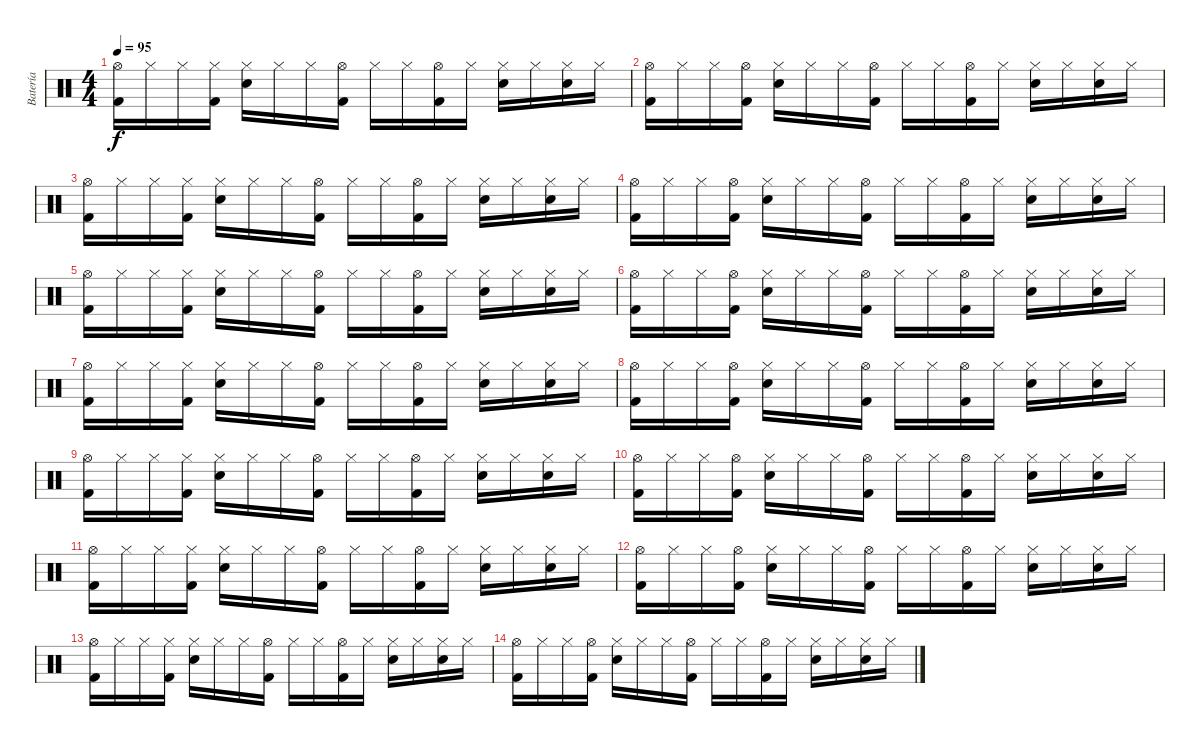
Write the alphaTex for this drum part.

\track ("Batería" "Batería") {instrument percussion}
\staff {score}
\articulation defaults
\ts (4 4)
\tempo 95
\clef neutral
\ks c
("Hi-Hat (open)" "Kick (hit) 2").16{dy f} "Hi-Hat (closed)".16 "Hi-Hat (closed)".16 ("Hi-Hat (closed)" "Kick (hit) 2").16 ("Hi-Hat (closed)" "Electric Snare (hit)").16 "Hi-Hat (closed)".16 "Hi-Hat (closed)".16 ("Hi-Hat (open)" "Kick (hit) 2").16 "Hi-Hat (closed)".16 "Hi-Hat (closed)".16 ("Hi-Hat (open)" "Kick (hit) 2").16 "Hi-Hat (closed)".16 ("Hi-Hat (closed)" "Electric Snare (hit)").16 "Hi-Hat (closed)".16 ("Hi-Hat (closed)" "Electric Snare (hit)").16 "Hi-Hat (closed)".16 |
("Hi-Hat (open)" "Kick (hit) 2").16 "Hi-Hat (closed)".16 "Hi-Hat (closed)".16 ("Hi-Hat (open)" "Kick (hit) 2").16 ("Hi-Hat (closed)" "Electric Snare (hit)").16 "Hi-Hat (closed)".16 "Hi-Hat (closed)".16 ("Hi-Hat (open)" "Kick (hit) 2").16 "Hi-Hat (closed)".16 "Hi-Hat (closed)".16 ("Hi-Hat (open)" "Kick (hit) 2").16 "Hi-Hat (closed)".16 ("Hi-Hat (closed)" "Electric Snare (hit)").16 "Hi-Hat (closed)".16 ("Hi-Hat (closed)" "Electric Snare (hit)").16 "Hi-Hat (closed)".16 |
("Hi-Hat (open)" "Kick (hit) 2").16 "Hi-Hat (closed)".16 "Hi-Hat (closed)".16 ("Hi-Hat (closed)" "Kick (hit) 2").16 ("Hi-Hat (closed)" "Electric Snare (hit)").16 "Hi-Hat (closed)".16 "Hi-Hat (closed)".16 ("Hi-Hat (open)" "Kick (hit) 2").16 "Hi-Hat (closed)".16 "Hi-Hat (closed)".16 ("Hi-Hat (open)" "Kick (hit) 2").16 "Hi-Hat (closed)".16 ("Hi-Hat (closed)" "Electric Snare (hit)").16 "Hi-Hat (closed)".16 ("Hi-Hat (closed)" "Electric Snare (hit)").16 "Hi-Hat (closed)".16 |
("Hi-Hat (open)" "Kick (hit) 2").16 "Hi-Hat (closed)".16 "Hi-Hat (closed)".16 ("Hi-Hat (open)" "Kick (hit) 2").16 ("Hi-Hat (closed)" "Electric Snare (hit)").16 "Hi-Hat (closed)".16 "Hi-Hat (closed)".16 ("Hi-Hat (open)" "Kick (hit) 2").16 "Hi-Hat (closed)".16 "Hi-Hat (closed)".16 ("Hi-Hat (open)" "Kick (hit) 2").16 "Hi-Hat (closed)".16 ("Hi-Hat (closed)" "Electric Snare (hit)").16 "Hi-Hat (closed)".16 ("Hi-Hat (closed)" "Electric Snare (hit)").16 "Hi-Hat (closed)".16 |
("Hi-Hat (open)" "Kick (hit) 2").16 "Hi-Hat (closed)".16 "Hi-Hat (closed)".16 ("Hi-Hat (closed)" "Kick (hit) 2").16 ("Hi-Hat (closed)" "Electric Snare (hit)").16 "Hi-Hat (closed)".16 "Hi-Hat (closed)".16 ("Hi-Hat (open)" "Kick (hit) 2").16 "Hi-Hat (closed)".16 "Hi-Hat (closed)".16 ("Hi-Hat (open)" "Kick (hit) 2").16 "Hi-Hat (closed)".16 ("Hi-Hat (closed)" "Electric Snare (hit)").16 "Hi-Hat (closed)".16 ("Hi-Hat (closed)" "Electric Snare (hit)").16 "Hi-Hat (closed)".16 |
("Hi-Hat (open)" "Kick (hit) 2").16 "Hi-Hat (closed)".16 "Hi-Hat (closed)".16 ("Hi-Hat (open)" "Kick (hit) 2").16 ("Hi-Hat (closed)" "Electric Snare (hit)").16 "Hi-Hat (closed)".16 "Hi-Hat (closed)".16 ("Hi-Hat (open)" "Kick (hit) 2").16 "Hi-Hat (closed)".16 "Hi-Hat (closed)".16 ("Hi-Hat (open)" "Kick (hit) 2").16 "Hi-Hat (closed)".16 ("Hi-Hat (closed)" "Electric Snare (hit)").16 "Hi-Hat (closed)".16 ("Hi-Hat (closed)" "Electric Snare (hit)").16 "Hi-Hat (closed)".16 |
("Hi-Hat (open)" "Kick (hit) 2").16 "Hi-Hat (closed)".16 "Hi-Hat (closed)".16 ("Hi-Hat (closed)" "Kick (hit) 2").16 ("Hi-Hat (closed)" "Electric Snare (hit)").16 "Hi-Hat (closed)".16 "Hi-Hat (closed)".16 ("Hi-Hat (open)" "Kick (hit) 2").16 "Hi-Hat (closed)".16 "Hi-Hat (closed)".16 ("Hi-Hat (open)" "Kick (hit) 2").16 "Hi-Hat (closed)".16 ("Hi-Hat (closed)" "Electric Snare (hit)").16 "Hi-Hat (closed)".16 ("Hi-Hat (closed)" "Electric Snare (hit)").16 "Hi-Hat (closed)".16 |
("Hi-Hat (open)" "Kick (hit) 2").16 "Hi-Hat (closed)".16 "Hi-Hat (closed)".16 ("Hi-Hat (open)" "Kick (hit) 2").16 ("Hi-Hat (closed)" "Electric Snare (hit)").16 "Hi-Hat (closed)".16 "Hi-Hat (closed)".16 ("Hi-Hat (open)" "Kick (hit) 2").16 "Hi-Hat (closed)".16 "Hi-Hat (closed)".16 ("Hi-Hat (open)" "Kick (hit) 2").16 "Hi-Hat (closed)".16 ("Hi-Hat (closed)" "Electric Snare (hit)").16 "Hi-Hat (closed)".16 ("Hi-Hat (closed)" "Electric Snare (hit)").16 "Hi-Hat (closed)".16 |
("Hi-Hat (open)" "Kick (hit) 2").16 "Hi-Hat (closed)".16 "Hi-Hat (closed)".16 ("Hi-Hat (closed)" "Kick (hit) 2").16 ("Hi-Hat (closed)" "Electric Snare (hit)").16 "Hi-Hat (closed)".16 "Hi-Hat (closed)".16 ("Hi-Hat (open)" "Kick (hit) 2").16 "Hi-Hat (closed)".16 "Hi-Hat (closed)".16 ("Hi-Hat (open)" "Kick (hit) 2").16 "Hi-Hat (closed)".16 ("Hi-Hat (closed)" "Electric Snare (hit)").16 "Hi-Hat (closed)".16 ("Hi-Hat (closed)" "Electric Snare (hit)").16 "Hi-Hat (closed)".16 |
("Hi-Hat (open)" "Kick (hit) 2").16 "Hi-Hat (closed)".16 "Hi-Hat (closed)".16 ("Hi-Hat (open)" "Kick (hit) 2").16 ("Hi-Hat (closed)" "Electric Snare (hit)").16 "Hi-Hat (closed)".16 "Hi-Hat (closed)".16 ("Hi-Hat (open)" "Kick (hit) 2").16 "Hi-Hat (closed)".16 "Hi-Hat (closed)".16 ("Hi-Hat (open)" "Kick (hit) 2").16 "Hi-Hat (closed)".16 ("Hi-Hat (closed)" "Electric Snare (hit)").16 "Hi-Hat (closed)".16 ("Hi-Hat (closed)" "Electric Snare (hit)").16 "Hi-Hat (closed)".16 |
("Hi-Hat (open)" "Kick (hit) 2").16 "Hi-Hat (closed)".16 "Hi-Hat (closed)".16 ("Hi-Hat (closed)" "Kick (hit) 2").16 ("Hi-Hat (closed)" "Electric Snare (hit)").16 "Hi-Hat (closed)".16 "Hi-Hat (closed)".16 ("Hi-Hat (open)" "Kick (hit) 2").16 "Hi-Hat (closed)".16 "Hi-Hat (closed)".16 ("Hi-Hat (open)" "Kick (hit) 2").16 "Hi-Hat (closed)".16 ("Hi-Hat (closed)" "Electric Snare (hit)").16 "Hi-Hat (closed)".16 ("Hi-Hat (closed)" "Electric Snare (hit)").16 "Hi-Hat (closed)".16 |
("Hi-Hat (open)" "Kick (hit) 2").16 "Hi-Hat (closed)".16 "Hi-Hat (closed)".16 ("Hi-Hat (open)" "Kick (hit) 2").16 ("Hi-Hat (closed)" "Electric Snare (hit)").16 "Hi-Hat (closed)".16 "Hi-Hat (closed)".16 ("Hi-Hat (open)" "Kick (hit) 2").16 "Hi-Hat (closed)".16 "Hi-Hat (closed)".16 ("Hi-Hat (open)" "Kick (hit) 2").16 "Hi-Hat (closed)".16 ("Hi-Hat (closed)" "Electric Snare (hit)").16 "Hi-Hat (closed)".16 ("Hi-Hat (closed)" "Electric Snare (hit)").16 "Hi-Hat (closed)".16 |
("Hi-Hat (open)" "Kick (hit) 2").16 "Hi-Hat (closed)".16 "Hi-Hat (closed)".16 ("Hi-Hat (closed)" "Kick (hit) 2").16 ("Hi-Hat (closed)" "Electric Snare (hit)").16 "Hi-Hat (closed)".16 "Hi-Hat (closed)".16 ("Hi-Hat (open)" "Kick (hit) 2").16 "Hi-Hat (closed)".16 "Hi-Hat (closed)".16 ("Hi-Hat (open)" "Kick (hit) 2").16 "Hi-Hat (closed)".16 ("Hi-Hat (closed)" "Electric Snare (hit)").16 "Hi-Hat (closed)".16 ("Hi-Hat (closed)" "Electric Snare (hit)").16 "Hi-Hat (closed)".16 |
("Hi-Hat (open)" "Kick (hit) 2").16 "Hi-Hat (closed)".16 "Hi-Hat (closed)".16 ("Hi-Hat (open)" "Kick (hit) 2").16 ("Hi-Hat (closed)" "Electric Snare (hit)").16 "Hi-Hat (closed)".16 "Hi-Hat (closed)".16 ("Hi-Hat (open)" "Kick (hit) 2").16 "Hi-Hat (closed)".16 "Hi-Hat (closed)".16 ("Hi-Hat (open)" "Kick (hit) 2").16 "Hi-Hat (closed)".16 ("Hi-Hat (closed)" "Electric Snare (hit)").16 "Hi-Hat (closed)".16 ("Hi-Hat (closed)" "Electric Snare (hit)").16 "Hi-Hat (closed)".16
